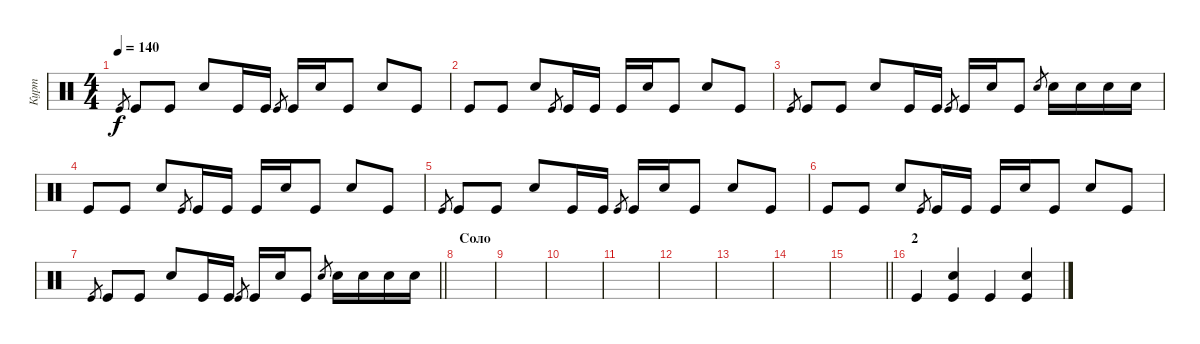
\track ("Курт" "Курт") {instrument percussion}
\staff {score}
\articulation defaults
\ts (4 4)
\tempo 140
\clef neutral
\ks c "Kick (hit)".8{gr dy f} "Kick (hit)".8 "Kick (hit)".8 "Snare (hit) 2".8 "Kick (hit)".16 "Kick (hit)".16 "Kick (hit)".8{gr} "Kick (hit)".16 "Snare (hit) 2".16 "Kick (hit)".8 "Snare (hit) 2".8 "Kick (hit)".8
|
"Kick (hit)".8 "Kick (hit)".8 "Snare (hit) 2".8 "Kick (hit)".8{gr} "Kick (hit)".16 "Kick (hit)".16 "Kick (hit)".16 "Snare (hit) 2".16 "Kick (hit)".8 "Snare (hit) 2".8 "Kick (hit)".8 |
"Kick (hit)".8{gr} "Kick (hit)".8 "Kick (hit)".8 "Snare (hit) 2".8 "Kick (hit)".16 "Kick (hit)".16 "Kick (hit)".8{gr} "Kick (hit)".16 "Snare (hit) 2".16 "Kick (hit)".8 "Snare (hit) 2".8{gr} "Snare (hit) 2".16 "Snare (hit) 2".16 "Snare (hit) 2".16 "Snare (hit) 2".16 |
"Kick (hit)".8 "Kick (hit)".8 "Snare (hit) 2".8 "Kick (hit)".8{gr} "Kick (hit)".16 "Kick (hit)".16 "Kick (hit)".16 "Snare (hit) 2".16 "Kick (hit)".8 "Snare (hit) 2".8 "Kick (hit)".8 |
"Kick (hit)".8{gr} "Kick (hit)".8 "Kick (hit)".8 "Snare (hit) 2".8 "Kick (hit)".16 "Kick (hit)".16 "Kick (hit)".8{gr} "Kick (hit)".16 "Snare (hit) 2".16 "Kick (hit)".8 "Snare (hit) 2".8 "Kick (hit)".8 |
"Kick (hit)".8 "Kick (hit)".8 "Snare (hit) 2".8 "Kick (hit)".8{gr} "Kick (hit)".16 "Kick (hit)".16 "Kick (hit)".16 "Snare (hit) 2".16 "Kick (hit)".8 "Snare (hit) 2".8 "Kick (hit)".8 |
\barLineRight lightlight "Kick (hit)".8{gr} "Kick (hit)".8 "Kick (hit)".8 "Snare (hit) 2".8 "Kick (hit)".16 "Kick (hit)".16 "Kick (hit)".8{gr} "Kick (hit)".16 "Snare (hit) 2".16 "Kick (hit)".8 "Snare (hit) 2".8{gr} "Snare (hit) 2".16 "Snare (hit) 2".16 "Snare (hit) 2".16 "Snare (hit) 2".16
|
\section ("" "Соло")
|
|
|
|
|
|
|
\barLineRight lightlight
|
\section ("" "2")
"Kick (hit)".4 ("Kick (hit)" "Snare (hit) 2").4 "Kick (hit)".4 ("Kick (hit)" "Snare (hit) 2").4
